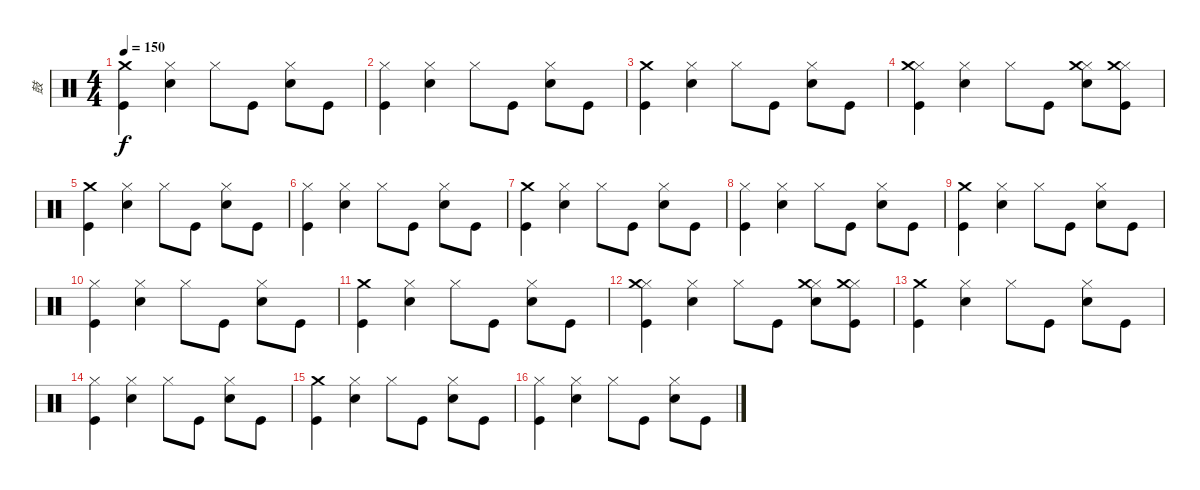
\track ("鼓" "鼓") {instrument percussion}
\staff {score}
\articulation defaults
\ts (4 4)
\tempo 150
\clef neutral
\ks c
("Kick (hit)" "Crash medium (hit)").4{dy f} ("Snare (hit) 2" "Hi-Hat (closed)").4 "Hi-Hat (closed)".8 "Kick (hit)".8 ("Snare (hit) 2" "Hi-Hat (closed)").8 "Kick (hit)".8 |
("Kick (hit)" "Hi-Hat (closed)").4 ("Snare (hit) 2" "Hi-Hat (closed)").4 "Hi-Hat (closed)".8 "Kick (hit)".8 ("Snare (hit) 2" "Hi-Hat (closed)").8 "Kick (hit)".8 |
("Kick (hit)" "Crash medium (hit)").4 ("Snare (hit) 2" "Hi-Hat (closed)").4 "Hi-Hat (closed)".8 "Kick (hit)".8 ("Snare (hit) 2" "Hi-Hat (closed)").8 "Kick (hit)".8 |
("Kick (hit)" "Hi-Hat (closed)" "Crash medium (hit)").4 ("Snare (hit) 2" "Hi-Hat (closed)").4 "Hi-Hat (closed)".8 "Kick (hit)".8 ("Snare (hit) 2" "Hi-Hat (closed)" "Crash medium (hit)").8 ("Kick (hit)" "Hi-Hat (closed)" "Crash medium (hit)").8 |
("Kick (hit)" "Crash medium (hit)").4 ("Snare (hit) 2" "Hi-Hat (closed)").4 "Hi-Hat (closed)".8 "Kick (hit)".8 ("Snare (hit) 2" "Hi-Hat (closed)").8 "Kick (hit)".8 |
("Kick (hit)" "Hi-Hat (closed)").4 ("Snare (hit) 2" "Hi-Hat (closed)").4 "Hi-Hat (closed)".8 "Kick (hit)".8 ("Snare (hit) 2" "Hi-Hat (closed)").8 "Kick (hit)".8 |
("Kick (hit)" "Crash medium (hit)").4 ("Snare (hit) 2" "Hi-Hat (closed)").4 "Hi-Hat (closed)".8 "Kick (hit)".8 ("Snare (hit) 2" "Hi-Hat (closed)").8 "Kick (hit)".8 |
("Kick (hit)" "Hi-Hat (closed)").4 ("Snare (hit) 2" "Hi-Hat (closed)").4 "Hi-Hat (closed)".8 "Kick (hit)".8 ("Snare (hit) 2" "Hi-Hat (closed)").8 "Kick (hit)".8 |
("Kick (hit)" "Crash medium (hit)").4 ("Snare (hit) 2" "Hi-Hat (closed)").4 "Hi-Hat (closed)".8 "Kick (hit)".8 ("Snare (hit) 2" "Hi-Hat (closed)").8 "Kick (hit)".8 |
("Kick (hit)" "Hi-Hat (closed)").4 ("Snare (hit) 2" "Hi-Hat (closed)").4 "Hi-Hat (closed)".8 "Kick (hit)".8 ("Snare (hit) 2" "Hi-Hat (closed)").8 "Kick (hit)".8 |
("Kick (hit)" "Crash medium (hit)").4 ("Snare (hit) 2" "Hi-Hat (closed)").4 "Hi-Hat (closed)".8 "Kick (hit)".8 ("Snare (hit) 2" "Hi-Hat (closed)").8 "Kick (hit)".8 |
("Kick (hit)" "Hi-Hat (closed)" "Crash medium (hit)").4 ("Snare (hit) 2" "Hi-Hat (closed)").4 "Hi-Hat (closed)".8 "Kick (hit)".8 ("Snare (hit) 2" "Hi-Hat (closed)" "Crash medium (hit)").8 ("Kick (hit)" "Hi-Hat (closed)" "Crash medium (hit)").8 |
("Kick (hit)" "Crash medium (hit)").4 ("Snare (hit) 2" "Hi-Hat (closed)").4 "Hi-Hat (closed)".8 "Kick (hit)".8 ("Snare (hit) 2" "Hi-Hat (closed)").8 "Kick (hit)".8 |
("Kick (hit)" "Hi-Hat (closed)").4 ("Snare (hit) 2" "Hi-Hat (closed)").4 "Hi-Hat (closed)".8 "Kick (hit)".8 ("Snare (hit) 2" "Hi-Hat (closed)").8 "Kick (hit)".8 |
("Kick (hit)" "Crash medium (hit)").4 ("Snare (hit) 2" "Hi-Hat (closed)").4 "Hi-Hat (closed)".8 "Kick (hit)".8 ("Snare (hit) 2" "Hi-Hat (closed)").8 "Kick (hit)".8 |
("Kick (hit)" "Hi-Hat (closed)").4 ("Snare (hit) 2" "Hi-Hat (closed)").4 "Hi-Hat (closed)".8 "Kick (hit)".8 ("Snare (hit) 2" "Hi-Hat (closed)").8 "Kick (hit)".8
